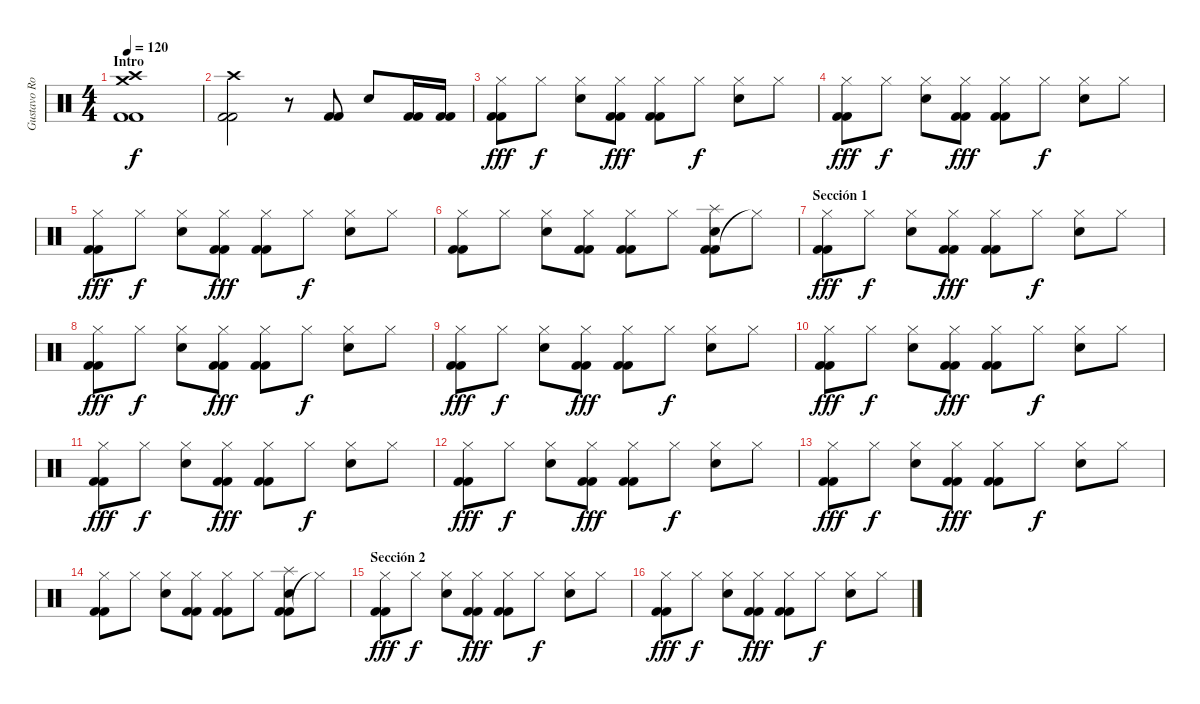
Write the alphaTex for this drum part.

\track ("Gustavo Rowek" "Gustavo Ro") {instrument percussion}
\staff {score}
\articulation defaults
\ts (4 4)
\section ("" "Intro")
\tempo 120
\clef neutral
\ks c
("Kick (hit) 2" "Kick (hit) 2" "Crash high (hit)" "Crash medium (hit)").1{dy f} |
("Kick (hit) 2" "Kick (hit) 2" "Crash high (hit)").2 r.8 ("Kick (hit) 2" "Kick (hit) 2").8 "Snare (hit) 2".8 ("Kick (hit) 2" "Kick (hit) 2").16 ("Kick (hit) 2" "Kick (hit) 2").16 |
("Kick (hit) 2" "Kick (hit) 2" "Hi-Hat (closed)").8{dy fff} "Hi-Hat (closed)".8{dy f} ("Snare (hit) 2" "Hi-Hat (closed)").8 ("Kick (hit) 2" "Kick (hit) 2" "Hi-Hat (closed)").8{dy fff} ("Kick (hit) 2" "Kick (hit) 2" "Hi-Hat (closed)").8 "Hi-Hat (closed)".8{dy f} ("Snare (hit) 2" "Hi-Hat (closed)").8 "Hi-Hat (closed)".8 |
("Kick (hit) 2" "Kick (hit) 2" "Hi-Hat (closed)").8{dy fff} "Hi-Hat (closed)".8{dy f} ("Snare (hit) 2" "Hi-Hat (closed)").8 ("Kick (hit) 2" "Kick (hit) 2" "Hi-Hat (closed)").8{dy fff} ("Kick (hit) 2" "Kick (hit) 2" "Hi-Hat (closed)").8 "Hi-Hat (closed)".8{dy f} ("Snare (hit) 2" "Hi-Hat (closed)").8 "Hi-Hat (closed)".8 |
("Kick (hit) 2" "Kick (hit) 2" "Hi-Hat (closed)").8{dy fff} "Hi-Hat (closed)".8{dy f} ("Snare (hit) 2" "Hi-Hat (closed)").8 ("Kick (hit) 2" "Kick (hit) 2" "Hi-Hat (closed)").8{dy fff} ("Kick (hit) 2" "Kick (hit) 2" "Hi-Hat (closed)").8 "Hi-Hat (closed)".8{dy f} ("Snare (hit) 2" "Hi-Hat (closed)").8 "Hi-Hat (closed)".8 |
("Kick (hit) 2" "Kick (hit) 2" "Hi-Hat (closed)").8 "Hi-Hat (closed)".8 ("Snare (hit) 2" "Hi-Hat (closed)").8 ("Kick (hit) 2" "Kick (hit) 2" "Hi-Hat (closed)").8 ("Kick (hit) 2" "Kick (hit) 2" "Hi-Hat (closed)").8 "Hi-Hat (closed)".8 ("Kick (hit) 2" "Kick (hit) 2" "Snare (hit) 2" "Splash (hit)").8 "Hi-Hat (closed)"{t}.8 |
\section ("" "Sección 1")
("Kick (hit) 2" "Kick (hit) 2" "Hi-Hat (closed)").8{dy fff} "Hi-Hat (closed)".8{dy f} ("Snare (hit) 2" "Hi-Hat (closed)").8 ("Kick (hit) 2" "Kick (hit) 2" "Hi-Hat (closed)").8{dy fff} ("Kick (hit) 2" "Kick (hit) 2" "Hi-Hat (closed)").8 "Hi-Hat (closed)".8{dy f} ("Snare (hit) 2" "Hi-Hat (closed)").8 "Hi-Hat (closed)".8 |
("Kick (hit) 2" "Kick (hit) 2" "Hi-Hat (closed)").8{dy fff} "Hi-Hat (closed)".8{dy f} ("Snare (hit) 2" "Hi-Hat (closed)").8 ("Kick (hit) 2" "Kick (hit) 2" "Hi-Hat (closed)").8{dy fff} ("Kick (hit) 2" "Kick (hit) 2" "Hi-Hat (closed)").8 "Hi-Hat (closed)".8{dy f} ("Snare (hit) 2" "Hi-Hat (closed)").8 "Hi-Hat (closed)".8 |
("Kick (hit) 2" "Kick (hit) 2" "Hi-Hat (closed)").8{dy fff} "Hi-Hat (closed)".8{dy f} ("Snare (hit) 2" "Hi-Hat (closed)").8 ("Kick (hit) 2" "Kick (hit) 2" "Hi-Hat (closed)").8{dy fff} ("Kick (hit) 2" "Kick (hit) 2" "Hi-Hat (closed)").8 "Hi-Hat (closed)".8{dy f} ("Snare (hit) 2" "Hi-Hat (closed)").8 "Hi-Hat (closed)".8 |
("Kick (hit) 2" "Kick (hit) 2" "Hi-Hat (closed)").8{dy fff} "Hi-Hat (closed)".8{dy f} ("Snare (hit) 2" "Hi-Hat (closed)").8 ("Kick (hit) 2" "Kick (hit) 2" "Hi-Hat (closed)").8{dy fff} ("Kick (hit) 2" "Kick (hit) 2" "Hi-Hat (closed)").8 "Hi-Hat (closed)".8{dy f} ("Snare (hit) 2" "Hi-Hat (closed)").8 "Hi-Hat (closed)".8 |
("Kick (hit) 2" "Kick (hit) 2" "Hi-Hat (closed)").8{dy fff} "Hi-Hat (closed)".8{dy f} ("Snare (hit) 2" "Hi-Hat (closed)").8 ("Kick (hit) 2" "Kick (hit) 2" "Hi-Hat (closed)").8{dy fff} ("Kick (hit) 2" "Kick (hit) 2" "Hi-Hat (closed)").8 "Hi-Hat (closed)".8{dy f} ("Snare (hit) 2" "Hi-Hat (closed)").8 "Hi-Hat (closed)".8 |
("Kick (hit) 2" "Kick (hit) 2" "Hi-Hat (closed)").8{dy fff} "Hi-Hat (closed)".8{dy f} ("Snare (hit) 2" "Hi-Hat (closed)").8 ("Kick (hit) 2" "Kick (hit) 2" "Hi-Hat (closed)").8{dy fff} ("Kick (hit) 2" "Kick (hit) 2" "Hi-Hat (closed)").8 "Hi-Hat (closed)".8{dy f} ("Snare (hit) 2" "Hi-Hat (closed)").8 "Hi-Hat (closed)".8 |
("Kick (hit) 2" "Kick (hit) 2" "Hi-Hat (closed)").8{dy fff} "Hi-Hat (closed)".8{dy f} ("Snare (hit) 2" "Hi-Hat (closed)").8 ("Kick (hit) 2" "Kick (hit) 2" "Hi-Hat (closed)").8{dy fff} ("Kick (hit) 2" "Kick (hit) 2" "Hi-Hat (closed)").8 "Hi-Hat (closed)".8{dy f} ("Snare (hit) 2" "Hi-Hat (closed)").8 "Hi-Hat (closed)".8 |
("Kick (hit) 2" "Kick (hit) 2" "Hi-Hat (closed)").8 "Hi-Hat (closed)".8 ("Snare (hit) 2" "Hi-Hat (closed)").8 ("Kick (hit) 2" "Kick (hit) 2" "Hi-Hat (closed)").8 ("Kick (hit) 2" "Kick (hit) 2" "Hi-Hat (closed)").8 "Hi-Hat (closed)".8 ("Kick (hit) 2" "Kick (hit) 2" "Snare (hit) 2" "Splash (hit)").8 "Hi-Hat (closed)"{t}.8 |
\section ("" "Sección 2")
("Kick (hit) 2" "Kick (hit) 2" "Hi-Hat (closed)").8{dy fff} "Hi-Hat (closed)".8{dy f} ("Snare (hit) 2" "Hi-Hat (closed)").8 ("Kick (hit) 2" "Kick (hit) 2" "Hi-Hat (closed)").8{dy fff} ("Kick (hit) 2" "Kick (hit) 2" "Hi-Hat (closed)").8 "Hi-Hat (closed)".8{dy f} ("Snare (hit) 2" "Hi-Hat (closed)").8 "Hi-Hat (closed)".8 |
("Kick (hit) 2" "Kick (hit) 2" "Hi-Hat (closed)").8{dy fff} "Hi-Hat (closed)".8{dy f} ("Snare (hit) 2" "Hi-Hat (closed)").8 ("Kick (hit) 2" "Kick (hit) 2" "Hi-Hat (closed)").8{dy fff} ("Kick (hit) 2" "Kick (hit) 2" "Hi-Hat (closed)").8 "Hi-Hat (closed)".8{dy f} ("Snare (hit) 2" "Hi-Hat (closed)").8 "Hi-Hat (closed)".8
